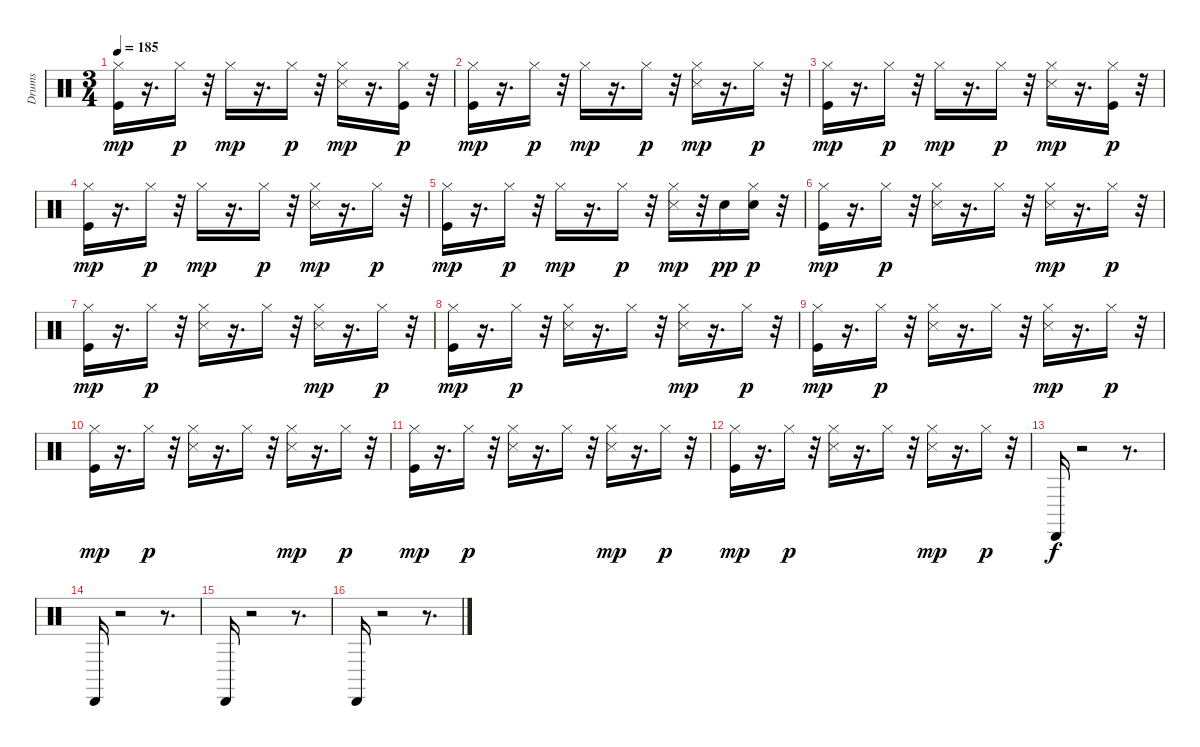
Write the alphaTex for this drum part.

\track ("Drums " "Drums ") {instrument percussion}
\staff {score}
\articulation defaults
\ts (3 4)
\tempo 185
\clef neutral
\ks c
("Kick (hit)" "Hi-Hat (closed)").16{dy mp} r.16{d} "Hi-Hat (closed)".16{dy p} r.32 "Hi-Hat (closed)".16{dy mp} r.16{d} "Hi-Hat (closed)".16{dy p} r.32 ("Hi-Hat (closed)" "Snare (side stick) 3").16{dy mp} r.16{d} ("Kick (hit)" "Hi-Hat (closed)").16{dy p} r.32 |
("Kick (hit)" "Hi-Hat (closed)").16{dy mp} r.16{d} "Hi-Hat (closed)".16{dy p} r.32 "Hi-Hat (closed)".16{dy mp} r.16{d} "Hi-Hat (closed)".16{dy p} r.32 ("Hi-Hat (closed)" "Snare (side stick) 3").16{dy mp} r.16{d} "Hi-Hat (closed)".16{dy p} r.32 |
("Kick (hit)" "Hi-Hat (closed)").16{dy mp} r.16{d} "Hi-Hat (closed)".16{dy p} r.32 "Hi-Hat (closed)".16{dy mp} r.16{d} "Hi-Hat (closed)".16{dy p} r.32 ("Hi-Hat (closed)" "Snare (side stick) 3").16{dy mp} r.16{d} ("Kick (hit)" "Hi-Hat (closed)").16{dy p} r.32 |
("Kick (hit)" "Hi-Hat (closed)").16{dy mp} r.16{d} "Hi-Hat (closed)".16{dy p} r.32 "Hi-Hat (closed)".16{dy mp} r.16{d} "Hi-Hat (closed)".16{dy p} r.32 ("Hi-Hat (closed)" "Snare (side stick) 3").16{dy mp} r.16{d} "Hi-Hat (closed)".16{dy p} r.32 |
("Kick (hit)" "Hi-Hat (closed)").16{dy mp} r.16{d} "Hi-Hat (closed)".16{dy p} r.32 "Hi-Hat (closed)".16{dy mp} r.16{d} "Hi-Hat (closed)".16{dy p} r.32 ("Hi-Hat (closed)" "Snare (side stick) 3").16{dy mp} r.32 "Snare (hit) 2".16{dy pp} ("Snare (hit) 2" "Hi-Hat (closed)").16{dy p} r.32 |
("Kick (hit)" "Hi-Hat (closed)").16{dy mp} r.16{d} "Hi-Hat (closed)".16{dy p} r.32 ("Hi-Hat (closed)" "Snare (side stick) 3").16 r.16{d} "Hi-Hat (closed)".16 r.32 ("Hi-Hat (closed)" "Snare (side stick) 3").16{dy mp} r.16{d} "Hi-Hat (closed)".16{dy p} r.32 |
("Kick (hit)" "Hi-Hat (closed)").16{dy mp} r.16{d} "Hi-Hat (closed)".16{dy p} r.32 ("Hi-Hat (closed)" "Snare (side stick) 3").16 r.16{d} "Hi-Hat (closed)".16 r.32 ("Hi-Hat (closed)" "Snare (side stick) 3").16{dy mp} r.16{d} "Hi-Hat (closed)".16{dy p} r.32 |
("Kick (hit)" "Hi-Hat (closed)").16{dy mp} r.16{d} "Hi-Hat (closed)".16{dy p} r.32 ("Hi-Hat (closed)" "Snare (side stick) 3").16 r.16{d} "Hi-Hat (closed)".16 r.32 ("Hi-Hat (closed)" "Snare (side stick) 3").16{dy mp} r.16{d} "Hi-Hat (closed)".16{dy p} r.32 |
("Kick (hit)" "Hi-Hat (closed)").16{dy mp} r.16{d} "Hi-Hat (closed)".16{dy p} r.32 ("Hi-Hat (closed)" "Snare (side stick) 3").16 r.16{d} "Hi-Hat (closed)".16 r.32 ("Hi-Hat (closed)" "Snare (side stick) 3").16{dy mp} r.16{d} "Hi-Hat (closed)".16{dy p} r.32 |
("Kick (hit)" "Hi-Hat (closed)").16{dy mp} r.16{d} "Hi-Hat (closed)".16{dy p} r.32 ("Hi-Hat (closed)" "Snare (side stick) 3").16 r.16{d} "Hi-Hat (closed)".16 r.32 ("Hi-Hat (closed)" "Snare (side stick) 3").16{dy mp} r.16{d} "Hi-Hat (closed)".16{dy p} r.32 |
("Kick (hit)" "Hi-Hat (closed)").16{dy mp} r.16{d} "Hi-Hat (closed)".16{dy p} r.32 ("Hi-Hat (closed)" "Snare (side stick) 3").16 r.16{d} "Hi-Hat (closed)".16 r.32 ("Hi-Hat (closed)" "Snare (side stick) 3").16{dy mp} r.16{d} "Hi-Hat (closed)".16{dy p} r.32 |
("Kick (hit)" "Hi-Hat (closed)").16{dy mp} r.16{d} "Hi-Hat (closed)".16{dy p} r.32 ("Hi-Hat (closed)" "Snare (side stick) 3").16 r.16{d} "Hi-Hat (closed)".16 r.32 ("Hi-Hat (closed)" "Snare (side stick) 3").16{dy mp} r.16{d} "Hi-Hat (closed)".16{dy p} r.32 |
"Cabasa (hit)".16{dy f} r.2 r.8{d} |
"Cabasa (hit)".16 r.2 r.8{d} |
"Cabasa (hit)".16 r.2 r.8{d} |
"Cabasa (hit)".16 r.2 r.8{d}
